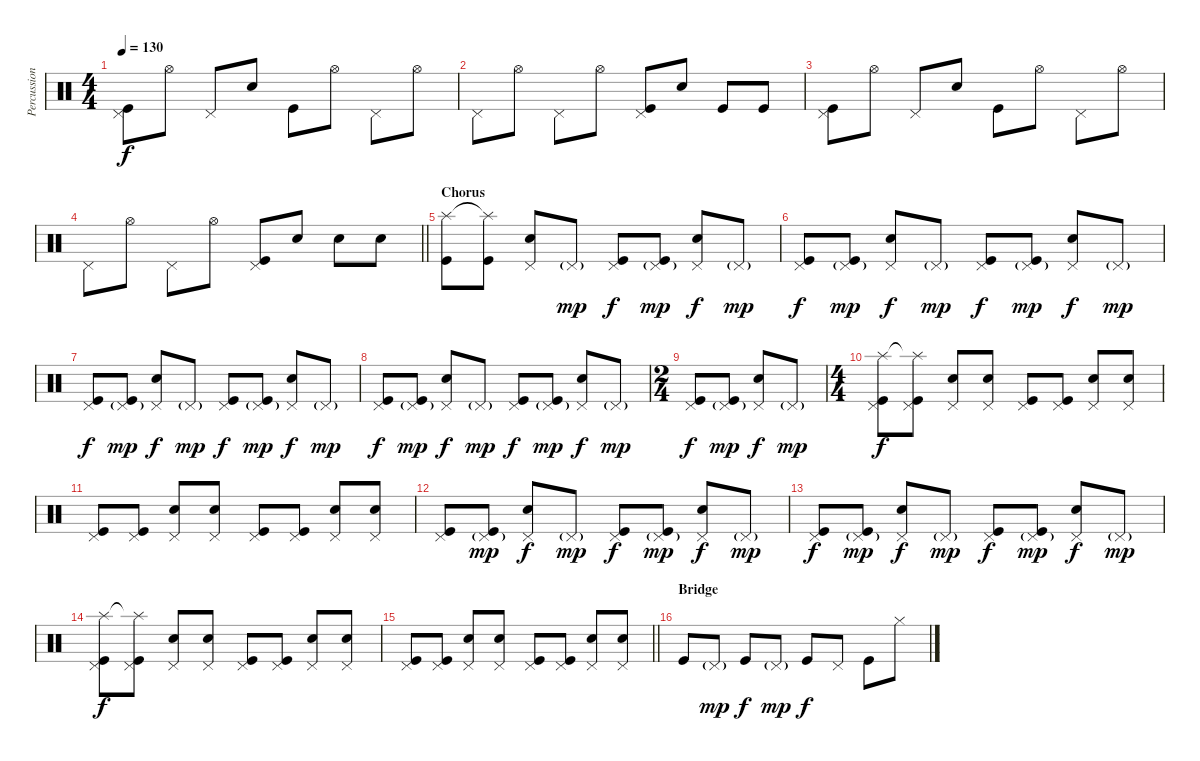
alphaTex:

\track ("Percussion" "Percussion") {instrument percussion}
\staff {score}
\articulation defaults
\ts (4 4)
\tempo 130
\clef neutral
\ks c
("Pedal Hi-Hat (hit)" "Kick (hit)").8{dy f} "Hi-Hat (open)".8 "Pedal Hi-Hat (hit)".8 "Snare (hit) 2".8 "Kick (hit)".8 "Hi-Hat (open)".8 "Pedal Hi-Hat (hit)".8 "Hi-Hat (open)".8 |
"Pedal Hi-Hat (hit)".8 "Hi-Hat (open)".8 "Pedal Hi-Hat (hit)".8 "Hi-Hat (open)".8 ("Pedal Hi-Hat (hit)" "Kick (hit)").8 "Snare (hit) 2".8 "Kick (hit)".8 "Kick (hit)".8 |
("Pedal Hi-Hat (hit)" "Kick (hit)").8 "Hi-Hat (open)".8 "Pedal Hi-Hat (hit)".8 "Snare (hit) 2".8 "Kick (hit)".8 "Hi-Hat (open)".8 "Pedal Hi-Hat (hit)".8 "Hi-Hat (open)".8 |
\barLineRight lightlight "Pedal Hi-Hat (hit)".8 "Hi-Hat (open)".8 "Pedal Hi-Hat (hit)".8 "Hi-Hat (open)".8
("Pedal Hi-Hat (hit)" "Kick (hit)").8 "Snare (hit) 2".8 "Snare (hit) 2".8 "Snare (hit) 2".8 |
\section ("" "Chorus")
("Splash (hit)" "Kick (hit)").8 ("Splash (hit)"{t} "Kick (hit)").8 ("Pedal Hi-Hat (hit)" "Snare (hit) 2").8 "Pedal Hi-Hat (hit)"{g}.8{dy mp} ("Pedal Hi-Hat (hit)" "Kick (hit)").8{dy f} ("Pedal Hi-Hat (hit)"{g} "Kick (hit)").8{dy mp} ("Pedal Hi-Hat (hit)" "Snare (hit) 2").8{dy f} "Pedal Hi-Hat (hit)"{g}.8{dy mp} |
("Pedal Hi-Hat (hit)" "Kick (hit)").8{dy f} ("Pedal Hi-Hat (hit)"{g} "Kick (hit)").8{dy mp} ("Pedal Hi-Hat (hit)" "Snare (hit) 2").8{dy f} "Pedal Hi-Hat (hit)"{g}.8{dy mp} ("Pedal Hi-Hat (hit)" "Kick (hit)").8{dy f} ("Pedal Hi-Hat (hit)"{g} "Kick (hit)").8{dy mp} ("Pedal Hi-Hat (hit)" "Snare (hit) 2").8{dy f} "Pedal Hi-Hat (hit)"{g}.8{dy mp} |
("Pedal Hi-Hat (hit)" "Kick (hit)").8{dy f} ("Pedal Hi-Hat (hit)"{g} "Kick (hit)").8{dy mp} ("Pedal Hi-Hat (hit)" "Snare (hit) 2").8{dy f} "Pedal Hi-Hat (hit)"{g}.8{dy mp} ("Pedal Hi-Hat (hit)" "Kick (hit)").8{dy f} ("Pedal Hi-Hat (hit)"{g} "Kick (hit)").8{dy mp} ("Pedal Hi-Hat (hit)" "Snare (hit) 2").8{dy f} "Pedal Hi-Hat (hit)"{g}.8{dy mp} |
("Pedal Hi-Hat (hit)" "Kick (hit)").8{dy f} ("Pedal Hi-Hat (hit)"{g} "Kick (hit)").8{dy mp} ("Pedal Hi-Hat (hit)" "Snare (hit) 2").8{dy f} "Pedal Hi-Hat (hit)"{g}.8{dy mp} ("Pedal Hi-Hat (hit)" "Kick (hit)").8{dy f} ("Pedal Hi-Hat (hit)"{g} "Kick (hit)").8{dy mp} ("Pedal Hi-Hat (hit)" "Snare (hit) 2").8{dy f} "Pedal Hi-Hat (hit)"{g}.8{dy mp} |
\ts (2 4)
("Pedal Hi-Hat (hit)" "Kick (hit)").8{dy f} ("Pedal Hi-Hat (hit)"{g} "Kick (hit)").8{dy mp} ("Pedal Hi-Hat (hit)" "Snare (hit) 2").8{dy f} "Pedal Hi-Hat (hit)"{g}.8{dy mp} |
\ts (4 4)
("Splash (hit)" "Pedal Hi-Hat (hit)" "Kick (hit)").8{dy f} ("Splash (hit)"{t} "Pedal Hi-Hat (hit)" "Kick (hit)").8 ("Pedal Hi-Hat (hit)" "Snare (hit) 2").8 ("Pedal Hi-Hat (hit)" "Snare (hit) 2").8 ("Pedal Hi-Hat (hit)" "Kick (hit)").8 ("Pedal Hi-Hat (hit)" "Kick (hit)").8 ("Pedal Hi-Hat (hit)" "Snare (hit) 2").8 ("Pedal Hi-Hat (hit)" "Snare (hit) 2").8 |
("Pedal Hi-Hat (hit)" "Kick (hit)").8 ("Pedal Hi-Hat (hit)" "Kick (hit)").8 ("Pedal Hi-Hat (hit)" "Snare (hit) 2").8 ("Pedal Hi-Hat (hit)" "Snare (hit) 2").8 ("Pedal Hi-Hat (hit)" "Kick (hit)").8 ("Pedal Hi-Hat (hit)" "Kick (hit)").8 ("Pedal Hi-Hat (hit)" "Snare (hit) 2").8 ("Pedal Hi-Hat (hit)" "Snare (hit) 2").8 |
("Pedal Hi-Hat (hit)" "Kick (hit)").8 ("Pedal Hi-Hat (hit)"{g} "Kick (hit)").8{dy mp} ("Pedal Hi-Hat (hit)" "Snare (hit) 2").8{dy f} "Pedal Hi-Hat (hit)"{g}.8{dy mp} ("Pedal Hi-Hat (hit)" "Kick (hit)").8{dy f} ("Pedal Hi-Hat (hit)"{g} "Kick (hit)").8{dy mp} ("Pedal Hi-Hat (hit)" "Snare (hit) 2").8{dy f} "Pedal Hi-Hat (hit)"{g}.8{dy mp} |
("Pedal Hi-Hat (hit)" "Kick (hit)").8{dy f} ("Pedal Hi-Hat (hit)"{g} "Kick (hit)").8{dy mp} ("Pedal Hi-Hat (hit)" "Snare (hit) 2").8{dy f} "Pedal Hi-Hat (hit)"{g}.8{dy mp} ("Pedal Hi-Hat (hit)" "Kick (hit)").8{dy f} ("Pedal Hi-Hat (hit)"{g} "Kick (hit)").8{dy mp} ("Pedal Hi-Hat (hit)" "Snare (hit) 2").8{dy f} "Pedal Hi-Hat (hit)"{g}.8{dy mp} |
("Splash (hit)" "Pedal Hi-Hat (hit)" "Kick (hit)").8{dy f} ("Splash (hit)"{t} "Pedal Hi-Hat (hit)" "Kick (hit)").8 ("Pedal Hi-Hat (hit)" "Snare (hit) 2").8 ("Pedal Hi-Hat (hit)" "Snare (hit) 2").8 ("Pedal Hi-Hat (hit)" "Kick (hit)").8 ("Pedal Hi-Hat (hit)" "Kick (hit)").8 ("Pedal Hi-Hat (hit)" "Snare (hit) 2").8 ("Pedal Hi-Hat (hit)" "Snare (hit) 2").8 |
\barLineRight lightlight
("Pedal Hi-Hat (hit)" "Kick (hit)").8 ("Pedal Hi-Hat (hit)" "Kick (hit)").8 ("Pedal Hi-Hat (hit)" "Snare (hit) 2").8 ("Pedal Hi-Hat (hit)" "Snare (hit) 2").8 ("Pedal Hi-Hat (hit)" "Kick (hit)").8 ("Pedal Hi-Hat (hit)" "Kick (hit)").8 ("Pedal Hi-Hat (hit)" "Snare (hit) 2").8 ("Pedal Hi-Hat (hit)" "Snare (hit) 2").8 |
\section ("" "Bridge")
"Kick (hit)".8 "Pedal Hi-Hat (hit)"{g}.8{dy mp} "Kick (hit)".8{dy f} "Pedal Hi-Hat (hit)"{g}.8{dy mp} "Kick (hit)".8{dy f} "Pedal Hi-Hat (hit)".8 "Kick (hit)".8 "Hi-Hat (closed)".8
